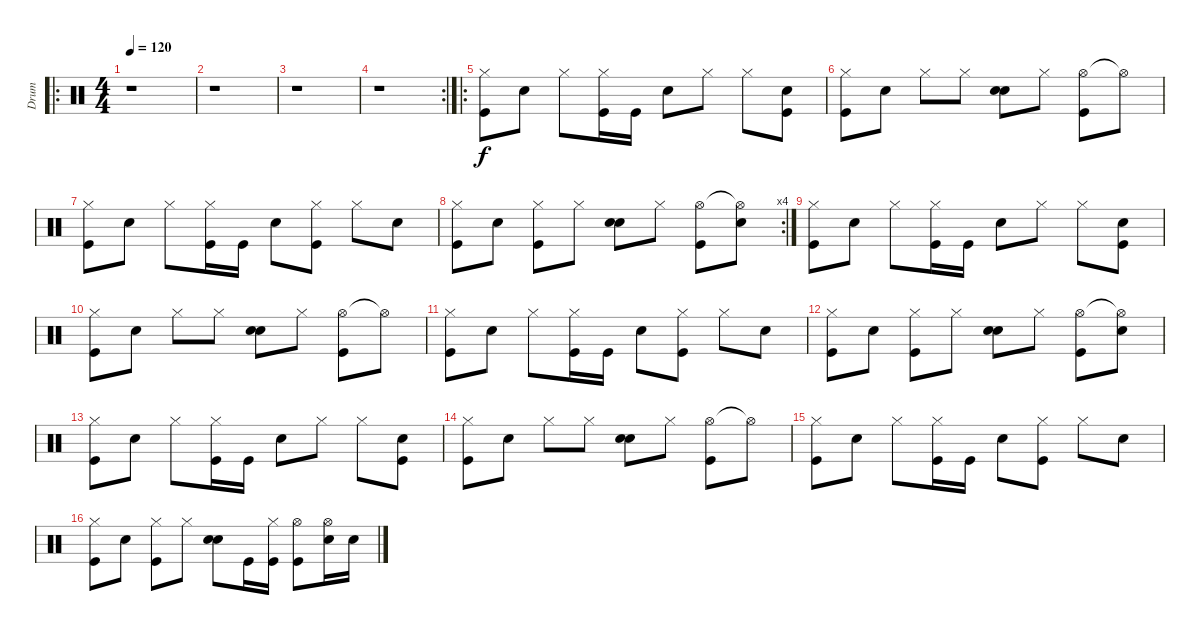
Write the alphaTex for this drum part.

\track ("Drum" "Drum") {instrument percussion}
\staff {score}
\articulation defaults
\ro
\ts (4 4)
\tempo 120
\clef neutral
\ks c
r.1{dy f} |
r.1 |
r.1 |
\rc 2
r.1 |
\ro
("Hi-Hat (closed)" "Kick (hit)").8 "Snare (hit)".8 "Hi-Hat (closed)".8 ("Hi-Hat (closed)" "Kick (hit)").16 "Kick (hit)".16 "Electric Snare (hit)".8 "Hi-Hat (closed)".8 "Hi-Hat (closed)".8 ("Snare (hit)" "Kick (hit)").8 |
("Hi-Hat (closed)" "Kick (hit)").8 "Snare (hit)".8 "Hi-Hat (closed)".8 "Hi-Hat (closed)".8 ("Snare (hit)" "Electric Snare (hit)").8 "Hi-Hat (closed)".8 ("Hi-Hat (open)" "Kick (hit)").8 "Hi-Hat (open)"{t}.8 |
("Hi-Hat (closed)" "Kick (hit)").8 "Snare (hit)".8 "Hi-Hat (closed)".8 ("Hi-Hat (closed)" "Kick (hit)").16 "Kick (hit)".16 "Electric Snare (hit)".8 ("Hi-Hat (closed)" "Kick (hit)").8 "Hi-Hat (closed)".8 "Snare (hit)".8 |
\rc 4
("Hi-Hat (closed)" "Kick (hit)").8 "Snare (hit)".8 ("Hi-Hat (closed)" "Kick (hit)").8 "Hi-Hat (closed)".8 ("Snare (hit)" "Electric Snare (hit)").8 "Hi-Hat (closed)".8 ("Hi-Hat (open)" "Kick (hit)").8 ("Hi-Hat (open)"{t} "Electric Snare (hit)").8 |
("Hi-Hat (closed)" "Kick (hit)").8 "Snare (hit)".8 "Hi-Hat (closed)".8 ("Hi-Hat (closed)" "Kick (hit)").16 "Kick (hit)".16 "Electric Snare (hit)".8 "Hi-Hat (closed)".8 "Hi-Hat (closed)".8 ("Snare (hit)" "Kick (hit)").8 |
("Hi-Hat (closed)" "Kick (hit)").8 "Snare (hit)".8 "Hi-Hat (closed)".8 "Hi-Hat (closed)".8 ("Snare (hit)" "Electric Snare (hit)").8 "Hi-Hat (closed)".8 ("Hi-Hat (open)" "Kick (hit)").8 "Hi-Hat (open)"{t}.8 |
("Hi-Hat (closed)" "Kick (hit)").8 "Snare (hit)".8 "Hi-Hat (closed)".8 ("Hi-Hat (closed)" "Kick (hit)").16 "Kick (hit)".16 "Electric Snare (hit)".8 ("Hi-Hat (closed)" "Kick (hit)").8 "Hi-Hat (closed)".8 "Snare (hit)".8 |
("Hi-Hat (closed)" "Kick (hit)").8 "Snare (hit)".8 ("Hi-Hat (closed)" "Kick (hit)").8 "Hi-Hat (closed)".8 ("Snare (hit)" "Electric Snare (hit)").8 "Hi-Hat (closed)".8 ("Hi-Hat (open)" "Kick (hit)").8 ("Hi-Hat (open)"{t} "Electric Snare (hit)").8 |
("Hi-Hat (closed)" "Kick (hit)").8 "Snare (hit)".8 "Hi-Hat (closed)".8 ("Hi-Hat (closed)" "Kick (hit)").16 "Kick (hit)".16 "Electric Snare (hit)".8 "Hi-Hat (closed)".8 "Hi-Hat (closed)".8 ("Snare (hit)" "Kick (hit)").8 |
("Hi-Hat (closed)" "Kick (hit)").8 "Snare (hit)".8 "Hi-Hat (closed)".8 "Hi-Hat (closed)".8 ("Snare (hit)" "Electric Snare (hit)").8 "Hi-Hat (closed)".8 ("Hi-Hat (open)" "Kick (hit)").8 "Hi-Hat (open)"{t}.8 |
("Hi-Hat (closed)" "Kick (hit)").8 "Snare (hit)".8 "Hi-Hat (closed)".8 ("Hi-Hat (closed)" "Kick (hit)").16 "Kick (hit)".16 "Electric Snare (hit)".8 ("Hi-Hat (closed)" "Kick (hit)").8 "Hi-Hat (closed)".8 "Snare (hit)".8 |
("Hi-Hat (closed)" "Kick (hit)").8 "Snare (hit)".8 ("Hi-Hat (closed)" "Kick (hit)").8 "Hi-Hat (closed)".8 ("Snare (hit)" "Electric Snare (hit)").8 "Kick (hit)".16 ("Hi-Hat (closed)" "Kick (hit)").16 ("Hi-Hat (open)" "Kick (hit)").8 ("Hi-Hat (open)" "Electric Snare (hit)").16 "Electric Snare (hit)".16
